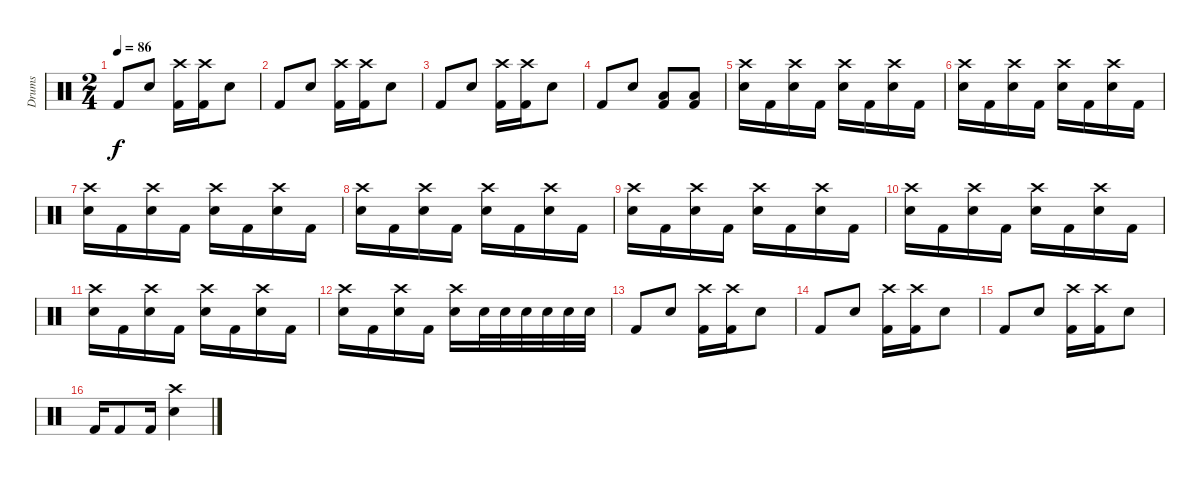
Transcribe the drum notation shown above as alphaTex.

\track ("Drums" "Drums") {instrument percussion}
\staff {score}
\articulation defaults
\ts (2 4)
\tempo 86
\clef neutral
\ks c "Kick (hit) 2".8{dy f} "Snare (hit) 2".8
("Crash high (hit)" "Kick (hit) 2").16 ("Crash high (hit)" "Kick (hit) 2").16 "Snare (hit) 2".8 |
"Kick (hit) 2".8 "Snare (hit) 2".8 ("Crash high (hit)" "Kick (hit) 2").16 ("Crash high (hit)" "Kick (hit) 2").16 "Snare (hit) 2".8 |
"Kick (hit) 2".8 "Snare (hit) 2".8 ("Crash high (hit)" "Kick (hit) 2").16 ("Crash high (hit)" "Kick (hit) 2").16 "Snare (hit) 2".8 |
"Kick (hit) 2".8 "Snare (hit) 2".8 ("Kick (hit) 2" "Low Floor Tom (hit)").8 ("Kick (hit) 2" "Low Floor Tom (hit)").8 |
("Crash high (hit)" "Snare (hit) 2").16 "Kick (hit) 2".16 ("Crash high (hit)" "Snare (hit) 2").16 "Kick (hit) 2".16 ("Crash high (hit)" "Snare (hit) 2").16 "Kick (hit) 2".16 ("Crash high (hit)" "Snare (hit) 2").16 "Kick (hit) 2".16 |
("Crash high (hit)" "Snare (hit) 2").16 "Kick (hit) 2".16 ("Crash high (hit)" "Snare (hit) 2").16 "Kick (hit) 2".16 ("Crash high (hit)" "Snare (hit) 2").16 "Kick (hit) 2".16 ("Crash high (hit)" "Snare (hit) 2").16 "Kick (hit) 2".16 |
("Crash high (hit)" "Snare (hit) 2").16 "Kick (hit) 2".16 ("Crash high (hit)" "Snare (hit) 2").16 "Kick (hit) 2".16 ("Crash high (hit)" "Snare (hit) 2").16 "Kick (hit) 2".16 ("Crash high (hit)" "Snare (hit) 2").16 "Kick (hit) 2".16 |
("Crash high (hit)" "Snare (hit) 2").16 "Kick (hit) 2".16 ("Crash high (hit)" "Snare (hit) 2").16 "Kick (hit) 2".16 ("Crash high (hit)" "Snare (hit) 2").16 "Kick (hit) 2".16 ("Crash high (hit)" "Snare (hit) 2").16 "Kick (hit) 2".16 |
("Crash high (hit)" "Snare (hit) 2").16 "Kick (hit) 2".16 ("Crash high (hit)" "Snare (hit) 2").16 "Kick (hit) 2".16 ("Crash high (hit)" "Snare (hit) 2").16 "Kick (hit) 2".16 ("Crash high (hit)" "Snare (hit) 2").16 "Kick (hit) 2".16 |
("Crash high (hit)" "Snare (hit) 2").16 "Kick (hit) 2".16 ("Crash high (hit)" "Snare (hit) 2").16 "Kick (hit) 2".16 ("Crash high (hit)" "Snare (hit) 2").16 "Kick (hit) 2".16 ("Crash high (hit)" "Snare (hit) 2").16 "Kick (hit) 2".16 |
("Crash high (hit)" "Snare (hit) 2").16 "Kick (hit) 2".16 ("Crash high (hit)" "Snare (hit) 2").16 "Kick (hit) 2".16 ("Crash high (hit)" "Snare (hit) 2").16 "Kick (hit) 2".16 ("Crash high (hit)" "Snare (hit) 2").16 "Kick (hit) 2".16 |
("Crash high (hit)" "Snare (hit) 2").16 "Kick (hit) 2".16 ("Crash high (hit)" "Snare (hit) 2").16 "Kick (hit) 2".16 ("Crash high (hit)" "Snare (hit) 2").16 "Snare (hit) 2".32 "Snare (hit) 2".32 "Snare (hit) 2".32 "Snare (hit) 2".32 "Snare (hit) 2".32 "Snare (hit) 2".32 |
"Kick (hit) 2".8 "Snare (hit) 2".8 ("Crash high (hit)" "Kick (hit) 2").16 ("Crash high (hit)" "Kick (hit) 2").16 "Snare (hit) 2".8 |
"Kick (hit) 2".8 "Snare (hit) 2".8 ("Crash high (hit)" "Kick (hit) 2").16 ("Crash high (hit)" "Kick (hit) 2").16 "Snare (hit) 2".8 |
"Kick (hit) 2".8 "Snare (hit) 2".8 ("Crash high (hit)" "Kick (hit) 2").16 ("Crash high (hit)" "Kick (hit) 2").16 "Snare (hit) 2".8 |
"Kick (hit) 2".16 "Kick (hit) 2".8 "Kick (hit) 2".16 ("Crash high (hit)" "Snare (hit) 2").4
